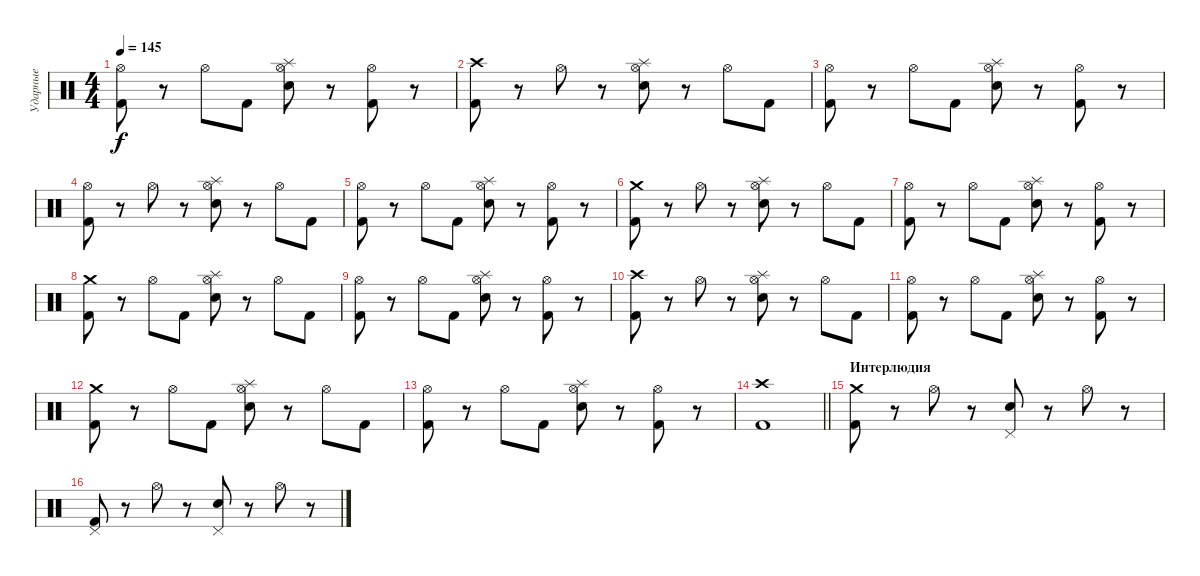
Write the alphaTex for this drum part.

\track ("Ударные" "Ударные") {instrument percussion}
\staff {score}
\articulation defaults
\ts (4 4)
\tempo 145
\clef neutral
\ks c
("Hi-Hat (open)" "Kick (hit) 2").8{dy f} r.8 "Hi-Hat (open)".8 "Kick (hit) 2".8 ("Splash (hit)" "Hi-Hat (open)" "Snare (hit) 2").8 r.8 ("Hi-Hat (open)" "Kick (hit) 2").8 r.8 |
("Crash high (hit)" "Kick (hit) 2").8 r.8 "Hi-Hat (open)".8 r.8 ("Splash (hit)" "Hi-Hat (open)" "Snare (hit) 2").8 r.8 "Hi-Hat (open)".8 "Kick (hit) 2".8 |
("Hi-Hat (open)" "Kick (hit) 2").8 r.8 "Hi-Hat (open)".8 "Kick (hit) 2".8 ("Splash (hit)" "Hi-Hat (open)" "Snare (hit) 2").8 r.8 ("Hi-Hat (open)" "Kick (hit) 2").8 r.8 |
("Hi-Hat (open)" "Kick (hit) 2").8 r.8 "Hi-Hat (open)".8 r.8 ("Splash (hit)" "Hi-Hat (open)" "Snare (hit) 2").8 r.8 "Hi-Hat (open)".8 "Kick (hit) 2".8 |
("Hi-Hat (open)" "Kick (hit) 2").8 r.8 "Hi-Hat (open)".8 "Kick (hit) 2".8 ("Splash (hit)" "Hi-Hat (open)" "Snare (hit) 2").8 r.8 ("Hi-Hat (open)" "Kick (hit) 2").8 r.8 |
("Crash medium (hit)" "Kick (hit) 2").8 r.8 "Hi-Hat (open)".8 r.8 ("Splash (hit)" "Hi-Hat (open)" "Snare (hit) 2").8 r.8 "Hi-Hat (open)".8 "Kick (hit) 2".8 |
("Hi-Hat (open)" "Kick (hit) 2").8 r.8 "Hi-Hat (open)".8 "Kick (hit) 2".8 ("Splash (hit)" "Hi-Hat (open)" "Snare (hit) 2").8 r.8 ("Hi-Hat (open)" "Kick (hit) 2").8 r.8 |
("Crash medium (hit)" "Kick (hit) 2").8 r.8 "Hi-Hat (open)".8 "Kick (hit) 2".8 ("Splash (hit)" "Hi-Hat (open)" "Snare (hit) 2").8 r.8 "Hi-Hat (open)".8 "Kick (hit) 2".8 |
("Hi-Hat (open)" "Kick (hit) 2").8 r.8 "Hi-Hat (open)".8 "Kick (hit) 2".8 ("Splash (hit)" "Hi-Hat (open)" "Snare (hit) 2").8 r.8 ("Hi-Hat (open)" "Kick (hit) 2").8 r.8 |
("Crash high (hit)" "Kick (hit) 2").8 r.8 "Hi-Hat (open)".8 r.8 ("Splash (hit)" "Hi-Hat (open)" "Snare (hit) 2").8 r.8 "Hi-Hat (open)".8 "Kick (hit) 2".8 |
("Hi-Hat (open)" "Kick (hit) 2").8 r.8 "Hi-Hat (open)".8 "Kick (hit) 2".8 ("Splash (hit)" "Hi-Hat (open)" "Snare (hit) 2").8 r.8 ("Hi-Hat (open)" "Kick (hit) 2").8 r.8 |
("Crash medium (hit)" "Kick (hit) 2").8 r.8 "Hi-Hat (open)".8 "Kick (hit) 2".8 ("Splash (hit)" "Hi-Hat (open)" "Snare (hit) 2").8 r.8 "Hi-Hat (open)".8 "Kick (hit) 2".8 |
("Hi-Hat (open)" "Kick (hit) 2").8 r.8 "Hi-Hat (open)".8 "Kick (hit) 2".8 ("Splash (hit)" "Hi-Hat (open)" "Snare (hit) 2").8 r.8 ("Hi-Hat (open)" "Kick (hit) 2").8 r.8 |
\barLineRight lightlight
("Crash high (hit)" "Kick (hit) 2").1 |
\section ("" "Интерлюдия")
("Crash medium (hit)" "Kick (hit) 2").8 r.8 "Hi-Hat (open)".8 r.8 ("Pedal Hi-Hat (hit)" "Snare (hit) 2").8 r.8 "Hi-Hat (open)".8 r.8 |
("Pedal Hi-Hat (hit)" "Kick (hit) 2").8 r.8 "Hi-Hat (open)".8 r.8 ("Pedal Hi-Hat (hit)" "Snare (hit) 2").8 r.8 "Hi-Hat (open)".8 r.8
